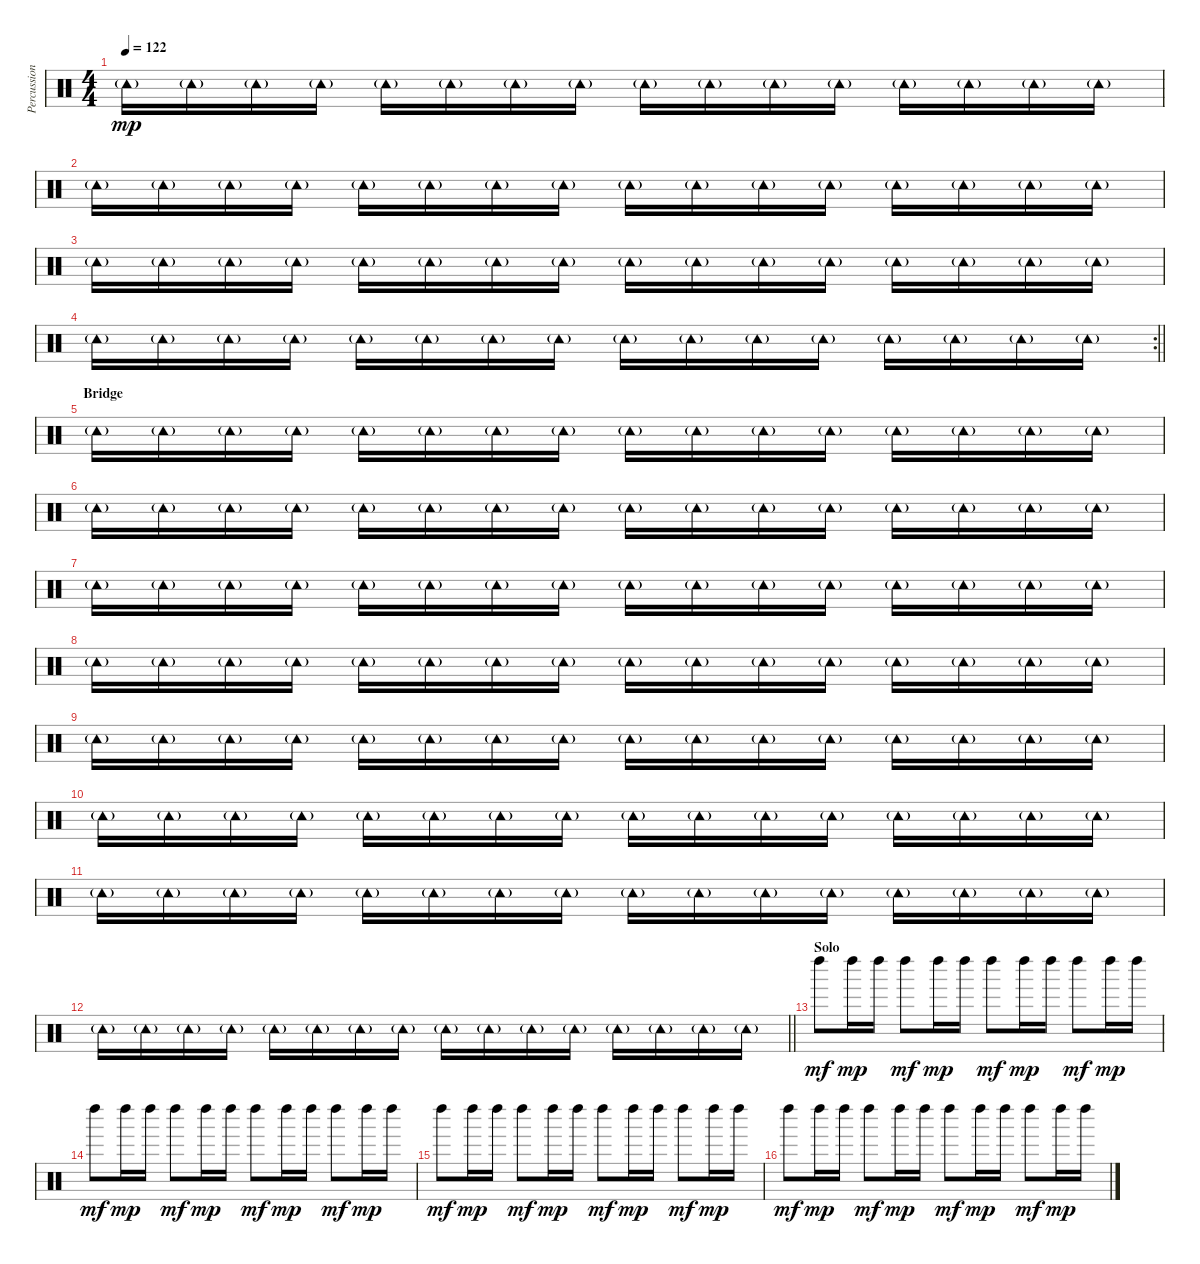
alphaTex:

\track ("Percussioni" "Percussion") {instrument percussion}
\staff {score}
\articulation defaults
\ts (4 4)
\tempo 122
\clef neutral
\ks c "Tambourine (hit)"{g}.16{dy mp} "Tambourine (hit)"{g}.16 "Tambourine (hit)"{g}.16 "Tambourine (hit)"{g}.16 "Tambourine (hit)"{g}.16 "Tambourine (hit)"{g}.16 "Tambourine (hit)"{g}.16 "Tambourine (hit)"{g}.16 "Tambourine (hit)"{g}.16 "Tambourine (hit)"{g}.16 "Tambourine (hit)"{g}.16 "Tambourine (hit)"{g}.16 "Tambourine (hit)"{g}.16 "Tambourine (hit)"{g}.16 "Tambourine (hit)"{g}.16 "Tambourine (hit)"{g}.16
|
"Tambourine (hit)"{g}.16 "Tambourine (hit)"{g}.16 "Tambourine (hit)"{g}.16 "Tambourine (hit)"{g}.16 "Tambourine (hit)"{g}.16 "Tambourine (hit)"{g}.16 "Tambourine (hit)"{g}.16 "Tambourine (hit)"{g}.16 "Tambourine (hit)"{g}.16 "Tambourine (hit)"{g}.16 "Tambourine (hit)"{g}.16 "Tambourine (hit)"{g}.16 "Tambourine (hit)"{g}.16 "Tambourine (hit)"{g}.16 "Tambourine (hit)"{g}.16 "Tambourine (hit)"{g}.16 |
"Tambourine (hit)"{g}.16 "Tambourine (hit)"{g}.16 "Tambourine (hit)"{g}.16 "Tambourine (hit)"{g}.16 "Tambourine (hit)"{g}.16 "Tambourine (hit)"{g}.16 "Tambourine (hit)"{g}.16 "Tambourine (hit)"{g}.16 "Tambourine (hit)"{g}.16 "Tambourine (hit)"{g}.16 "Tambourine (hit)"{g}.16 "Tambourine (hit)"{g}.16 "Tambourine (hit)"{g}.16 "Tambourine (hit)"{g}.16 "Tambourine (hit)"{g}.16 "Tambourine (hit)"{g}.16 |
\rc 2
\barLineRight lightlight "Tambourine (hit)"{g}.16 "Tambourine (hit)"{g}.16 "Tambourine (hit)"{g}.16 "Tambourine (hit)"{g}.16 "Tambourine (hit)"{g}.16 "Tambourine (hit)"{g}.16 "Tambourine (hit)"{g}.16 "Tambourine (hit)"{g}.16 "Tambourine (hit)"{g}.16 "Tambourine (hit)"{g}.16 "Tambourine (hit)"{g}.16 "Tambourine (hit)"{g}.16 "Tambourine (hit)"{g}.16 "Tambourine (hit)"{g}.16 "Tambourine (hit)"{g}.16 "Tambourine (hit)"{g}.16
|
\section ("" "Bridge")
"Tambourine (hit)"{g}.16 "Tambourine (hit)"{g}.16 "Tambourine (hit)"{g}.16 "Tambourine (hit)"{g}.16 "Tambourine (hit)"{g}.16 "Tambourine (hit)"{g}.16 "Tambourine (hit)"{g}.16 "Tambourine (hit)"{g}.16 "Tambourine (hit)"{g}.16 "Tambourine (hit)"{g}.16 "Tambourine (hit)"{g}.16 "Tambourine (hit)"{g}.16 "Tambourine (hit)"{g}.16 "Tambourine (hit)"{g}.16 "Tambourine (hit)"{g}.16 "Tambourine (hit)"{g}.16 |
"Tambourine (hit)"{g}.16 "Tambourine (hit)"{g}.16 "Tambourine (hit)"{g}.16 "Tambourine (hit)"{g}.16 "Tambourine (hit)"{g}.16 "Tambourine (hit)"{g}.16 "Tambourine (hit)"{g}.16 "Tambourine (hit)"{g}.16 "Tambourine (hit)"{g}.16 "Tambourine (hit)"{g}.16 "Tambourine (hit)"{g}.16 "Tambourine (hit)"{g}.16 "Tambourine (hit)"{g}.16 "Tambourine (hit)"{g}.16 "Tambourine (hit)"{g}.16 "Tambourine (hit)"{g}.16 |
"Tambourine (hit)"{g}.16 "Tambourine (hit)"{g}.16 "Tambourine (hit)"{g}.16 "Tambourine (hit)"{g}.16 "Tambourine (hit)"{g}.16 "Tambourine (hit)"{g}.16 "Tambourine (hit)"{g}.16 "Tambourine (hit)"{g}.16 "Tambourine (hit)"{g}.16 "Tambourine (hit)"{g}.16 "Tambourine (hit)"{g}.16 "Tambourine (hit)"{g}.16 "Tambourine (hit)"{g}.16 "Tambourine (hit)"{g}.16 "Tambourine (hit)"{g}.16 "Tambourine (hit)"{g}.16 |
"Tambourine (hit)"{g}.16 "Tambourine (hit)"{g}.16 "Tambourine (hit)"{g}.16 "Tambourine (hit)"{g}.16 "Tambourine (hit)"{g}.16 "Tambourine (hit)"{g}.16 "Tambourine (hit)"{g}.16 "Tambourine (hit)"{g}.16 "Tambourine (hit)"{g}.16 "Tambourine (hit)"{g}.16 "Tambourine (hit)"{g}.16 "Tambourine (hit)"{g}.16 "Tambourine (hit)"{g}.16 "Tambourine (hit)"{g}.16 "Tambourine (hit)"{g}.16 "Tambourine (hit)"{g}.16 |
"Tambourine (hit)"{g}.16 "Tambourine (hit)"{g}.16 "Tambourine (hit)"{g}.16 "Tambourine (hit)"{g}.16 "Tambourine (hit)"{g}.16 "Tambourine (hit)"{g}.16 "Tambourine (hit)"{g}.16 "Tambourine (hit)"{g}.16 "Tambourine (hit)"{g}.16 "Tambourine (hit)"{g}.16 "Tambourine (hit)"{g}.16 "Tambourine (hit)"{g}.16 "Tambourine (hit)"{g}.16 "Tambourine (hit)"{g}.16 "Tambourine (hit)"{g}.16 "Tambourine (hit)"{g}.16 |
"Tambourine (hit)"{g}.16 "Tambourine (hit)"{g}.16 "Tambourine (hit)"{g}.16 "Tambourine (hit)"{g}.16 "Tambourine (hit)"{g}.16 "Tambourine (hit)"{g}.16 "Tambourine (hit)"{g}.16 "Tambourine (hit)"{g}.16 "Tambourine (hit)"{g}.16 "Tambourine (hit)"{g}.16 "Tambourine (hit)"{g}.16 "Tambourine (hit)"{g}.16 "Tambourine (hit)"{g}.16 "Tambourine (hit)"{g}.16 "Tambourine (hit)"{g}.16 "Tambourine (hit)"{g}.16 |
"Tambourine (hit)"{g}.16 "Tambourine (hit)"{g}.16 "Tambourine (hit)"{g}.16 "Tambourine (hit)"{g}.16 "Tambourine (hit)"{g}.16 "Tambourine (hit)"{g}.16 "Tambourine (hit)"{g}.16 "Tambourine (hit)"{g}.16 "Tambourine (hit)"{g}.16 "Tambourine (hit)"{g}.16 "Tambourine (hit)"{g}.16 "Tambourine (hit)"{g}.16 "Tambourine (hit)"{g}.16 "Tambourine (hit)"{g}.16 "Tambourine (hit)"{g}.16 "Tambourine (hit)"{g}.16 |
\barLineRight lightlight "Tambourine (hit)"{g}.16 "Tambourine (hit)"{g}.16 "Tambourine (hit)"{g}.16 "Tambourine (hit)"{g}.16 "Tambourine (hit)"{g}.16 "Tambourine (hit)"{g}.16 "Tambourine (hit)"{g}.16 "Tambourine (hit)"{g}.16 "Tambourine (hit)"{g}.16 "Tambourine (hit)"{g}.16 "Tambourine (hit)"{g}.16 "Tambourine (hit)"{g}.16 "Tambourine (hit)"{g}.16 "Tambourine (hit)"{g}.16 "Tambourine (hit)"{g}.16 "Tambourine (hit)"{g}.16
|
\section ("" "Solo")
"Left Maraca (hit)".8{dy mf} "Left Maraca (hit)".16{dy mp} "Left Maraca (hit)".16 "Left Maraca (hit)".8{dy mf} "Left Maraca (hit)".16{dy mp} "Left Maraca (hit)".16 "Left Maraca (hit)".8{dy mf} "Left Maraca (hit)".16{dy mp} "Left Maraca (hit)".16 "Left Maraca (hit)".8{dy mf} "Left Maraca (hit)".16{dy mp} "Left Maraca (hit)".16 |
"Left Maraca (hit)".8{dy mf} "Left Maraca (hit)".16{dy mp} "Left Maraca (hit)".16 "Left Maraca (hit)".8{dy mf} "Left Maraca (hit)".16{dy mp} "Left Maraca (hit)".16 "Left Maraca (hit)".8{dy mf} "Left Maraca (hit)".16{dy mp} "Left Maraca (hit)".16 "Left Maraca (hit)".8{dy mf} "Left Maraca (hit)".16{dy mp} "Left Maraca (hit)".16 |
"Left Maraca (hit)".8{dy mf} "Left Maraca (hit)".16{dy mp} "Left Maraca (hit)".16 "Left Maraca (hit)".8{dy mf} "Left Maraca (hit)".16{dy mp} "Left Maraca (hit)".16 "Left Maraca (hit)".8{dy mf} "Left Maraca (hit)".16{dy mp} "Left Maraca (hit)".16 "Left Maraca (hit)".8{dy mf} "Left Maraca (hit)".16{dy mp} "Left Maraca (hit)".16 |
"Left Maraca (hit)".8{dy mf} "Left Maraca (hit)".16{dy mp} "Left Maraca (hit)".16 "Left Maraca (hit)".8{dy mf} "Left Maraca (hit)".16{dy mp} "Left Maraca (hit)".16 "Left Maraca (hit)".8{dy mf} "Left Maraca (hit)".16{dy mp} "Left Maraca (hit)".16 "Left Maraca (hit)".8{dy mf} "Left Maraca (hit)".16{dy mp} "Left Maraca (hit)".16
